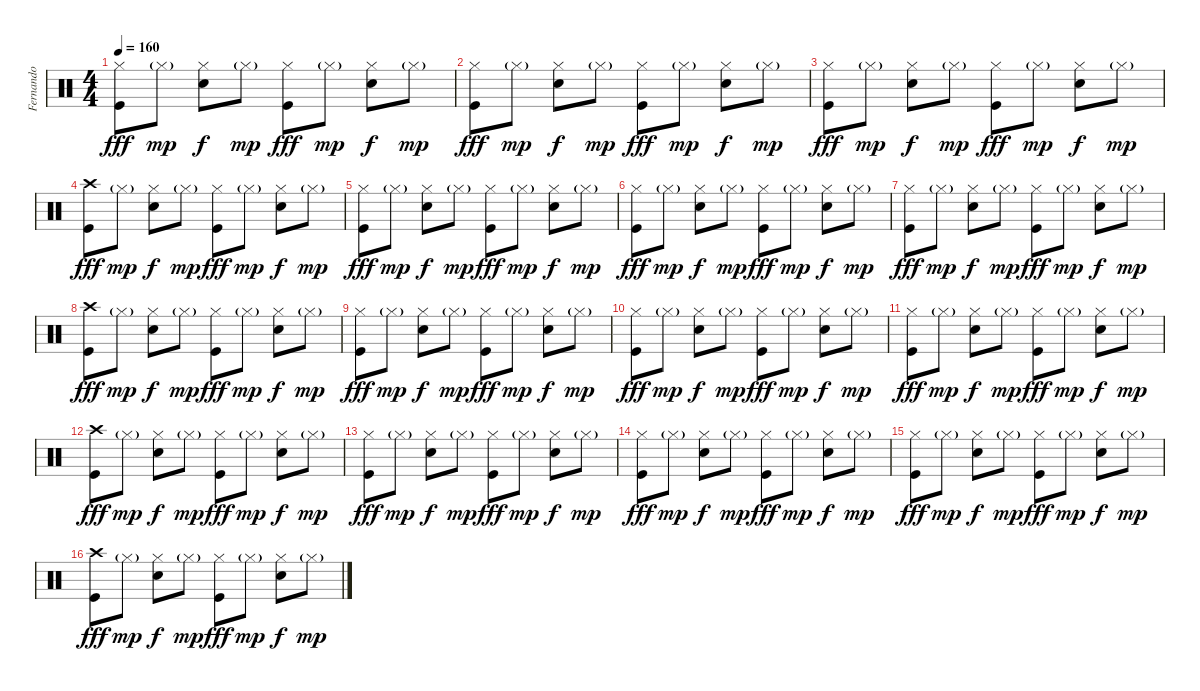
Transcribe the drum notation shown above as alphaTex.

\track ("Fernando" "Fernando") {instrument percussion}
\staff {score}
\articulation defaults
\ts (4 4)
\tempo 160
\clef neutral
\ks c
("Hi-Hat (closed)" "Kick (hit)").8{dy fff} "Hi-Hat (closed)"{g}.8{dy mp} ("Hi-Hat (closed)" "Snare (hit) 2").8{dy f} "Hi-Hat (closed)"{g}.8{dy mp} ("Hi-Hat (closed)" "Kick (hit)").8{dy fff} "Hi-Hat (closed)"{g}.8{dy mp} ("Hi-Hat (closed)" "Snare (hit) 2").8{dy f} "Hi-Hat (closed)"{g}.8{dy mp} |
("Hi-Hat (closed)" "Kick (hit)").8{dy fff} "Hi-Hat (closed)"{g}.8{dy mp} ("Hi-Hat (closed)" "Snare (hit) 2").8{dy f} "Hi-Hat (closed)"{g}.8{dy mp} ("Hi-Hat (closed)" "Kick (hit)").8{dy fff} "Hi-Hat (closed)"{g}.8{dy mp} ("Hi-Hat (closed)" "Snare (hit) 2").8{dy f} "Hi-Hat (closed)"{g}.8{dy mp} |
("Hi-Hat (closed)" "Kick (hit)").8{dy fff} "Hi-Hat (closed)"{g}.8{dy mp} ("Hi-Hat (closed)" "Snare (hit) 2").8{dy f} "Hi-Hat (closed)"{g}.8{dy mp} ("Hi-Hat (closed)" "Kick (hit)").8{dy fff} "Hi-Hat (closed)"{g}.8{dy mp} ("Hi-Hat (closed)" "Snare (hit) 2").8{dy f} "Hi-Hat (closed)"{g}.8{dy mp} |
("Crash high (hit)" "Kick (hit)").8{dy fff} "Hi-Hat (closed)"{g}.8{dy mp} ("Hi-Hat (closed)" "Snare (hit) 2").8{dy f} "Hi-Hat (closed)"{g}.8{dy mp} ("Hi-Hat (closed)" "Kick (hit)").8{dy fff} "Hi-Hat (closed)"{g}.8{dy mp} ("Hi-Hat (closed)" "Snare (hit) 2").8{dy f} "Hi-Hat (closed)"{g}.8{dy mp} |
("Hi-Hat (closed)" "Kick (hit)").8{dy fff} "Hi-Hat (closed)"{g}.8{dy mp} ("Hi-Hat (closed)" "Snare (hit) 2").8{dy f} "Hi-Hat (closed)"{g}.8{dy mp} ("Hi-Hat (closed)" "Kick (hit)").8{dy fff} "Hi-Hat (closed)"{g}.8{dy mp} ("Hi-Hat (closed)" "Snare (hit) 2").8{dy f} "Hi-Hat (closed)"{g}.8{dy mp} |
("Hi-Hat (closed)" "Kick (hit)").8{dy fff} "Hi-Hat (closed)"{g}.8{dy mp} ("Hi-Hat (closed)" "Snare (hit) 2").8{dy f} "Hi-Hat (closed)"{g}.8{dy mp} ("Hi-Hat (closed)" "Kick (hit)").8{dy fff} "Hi-Hat (closed)"{g}.8{dy mp} ("Hi-Hat (closed)" "Snare (hit) 2").8{dy f} "Hi-Hat (closed)"{g}.8{dy mp} |
("Hi-Hat (closed)" "Kick (hit)").8{dy fff} "Hi-Hat (closed)"{g}.8{dy mp} ("Hi-Hat (closed)" "Snare (hit) 2").8{dy f} "Hi-Hat (closed)"{g}.8{dy mp} ("Hi-Hat (closed)" "Kick (hit)").8{dy fff} "Hi-Hat (closed)"{g}.8{dy mp} ("Hi-Hat (closed)" "Snare (hit) 2").8{dy f} "Hi-Hat (closed)"{g}.8{dy mp} |
("Crash high (hit)" "Kick (hit)").8{dy fff} "Hi-Hat (closed)"{g}.8{dy mp} ("Hi-Hat (closed)" "Snare (hit) 2").8{dy f} "Hi-Hat (closed)"{g}.8{dy mp} ("Hi-Hat (closed)" "Kick (hit)").8{dy fff} "Hi-Hat (closed)"{g}.8{dy mp} ("Hi-Hat (closed)" "Snare (hit) 2").8{dy f} "Hi-Hat (closed)"{g}.8{dy mp} |
("Hi-Hat (closed)" "Kick (hit)").8{dy fff} "Hi-Hat (closed)"{g}.8{dy mp} ("Hi-Hat (closed)" "Snare (hit) 2").8{dy f} "Hi-Hat (closed)"{g}.8{dy mp} ("Hi-Hat (closed)" "Kick (hit)").8{dy fff} "Hi-Hat (closed)"{g}.8{dy mp} ("Hi-Hat (closed)" "Snare (hit) 2").8{dy f} "Hi-Hat (closed)"{g}.8{dy mp} |
("Hi-Hat (closed)" "Kick (hit)").8{dy fff} "Hi-Hat (closed)"{g}.8{dy mp} ("Hi-Hat (closed)" "Snare (hit) 2").8{dy f} "Hi-Hat (closed)"{g}.8{dy mp} ("Hi-Hat (closed)" "Kick (hit)").8{dy fff} "Hi-Hat (closed)"{g}.8{dy mp} ("Hi-Hat (closed)" "Snare (hit) 2").8{dy f} "Hi-Hat (closed)"{g}.8{dy mp} |
("Hi-Hat (closed)" "Kick (hit)").8{dy fff} "Hi-Hat (closed)"{g}.8{dy mp} ("Hi-Hat (closed)" "Snare (hit) 2").8{dy f} "Hi-Hat (closed)"{g}.8{dy mp} ("Hi-Hat (closed)" "Kick (hit)").8{dy fff} "Hi-Hat (closed)"{g}.8{dy mp} ("Hi-Hat (closed)" "Snare (hit) 2").8{dy f} "Hi-Hat (closed)"{g}.8{dy mp} |
("Crash high (hit)" "Kick (hit)").8{dy fff} "Hi-Hat (closed)"{g}.8{dy mp} ("Hi-Hat (closed)" "Snare (hit) 2").8{dy f} "Hi-Hat (closed)"{g}.8{dy mp} ("Hi-Hat (closed)" "Kick (hit)").8{dy fff} "Hi-Hat (closed)"{g}.8{dy mp} ("Hi-Hat (closed)" "Snare (hit) 2").8{dy f} "Hi-Hat (closed)"{g}.8{dy mp} |
("Hi-Hat (closed)" "Kick (hit)").8{dy fff} "Hi-Hat (closed)"{g}.8{dy mp} ("Hi-Hat (closed)" "Snare (hit) 2").8{dy f} "Hi-Hat (closed)"{g}.8{dy mp} ("Hi-Hat (closed)" "Kick (hit)").8{dy fff} "Hi-Hat (closed)"{g}.8{dy mp} ("Hi-Hat (closed)" "Snare (hit) 2").8{dy f} "Hi-Hat (closed)"{g}.8{dy mp} |
("Hi-Hat (closed)" "Kick (hit)").8{dy fff} "Hi-Hat (closed)"{g}.8{dy mp} ("Hi-Hat (closed)" "Snare (hit) 2").8{dy f} "Hi-Hat (closed)"{g}.8{dy mp} ("Hi-Hat (closed)" "Kick (hit)").8{dy fff} "Hi-Hat (closed)"{g}.8{dy mp} ("Hi-Hat (closed)" "Snare (hit) 2").8{dy f} "Hi-Hat (closed)"{g}.8{dy mp} |
("Hi-Hat (closed)" "Kick (hit)").8{dy fff} "Hi-Hat (closed)"{g}.8{dy mp} ("Hi-Hat (closed)" "Snare (hit) 2").8{dy f} "Hi-Hat (closed)"{g}.8{dy mp} ("Hi-Hat (closed)" "Kick (hit)").8{dy fff} "Hi-Hat (closed)"{g}.8{dy mp} ("Hi-Hat (closed)" "Snare (hit) 2").8{dy f} "Hi-Hat (closed)"{g}.8{dy mp} |
("Crash high (hit)" "Kick (hit)").8{dy fff} "Hi-Hat (closed)"{g}.8{dy mp} ("Hi-Hat (closed)" "Snare (hit) 2").8{dy f} "Hi-Hat (closed)"{g}.8{dy mp} ("Hi-Hat (closed)" "Kick (hit)").8{dy fff} "Hi-Hat (closed)"{g}.8{dy mp} ("Hi-Hat (closed)" "Snare (hit) 2").8{dy f} "Hi-Hat (closed)"{g}.8{dy mp}
